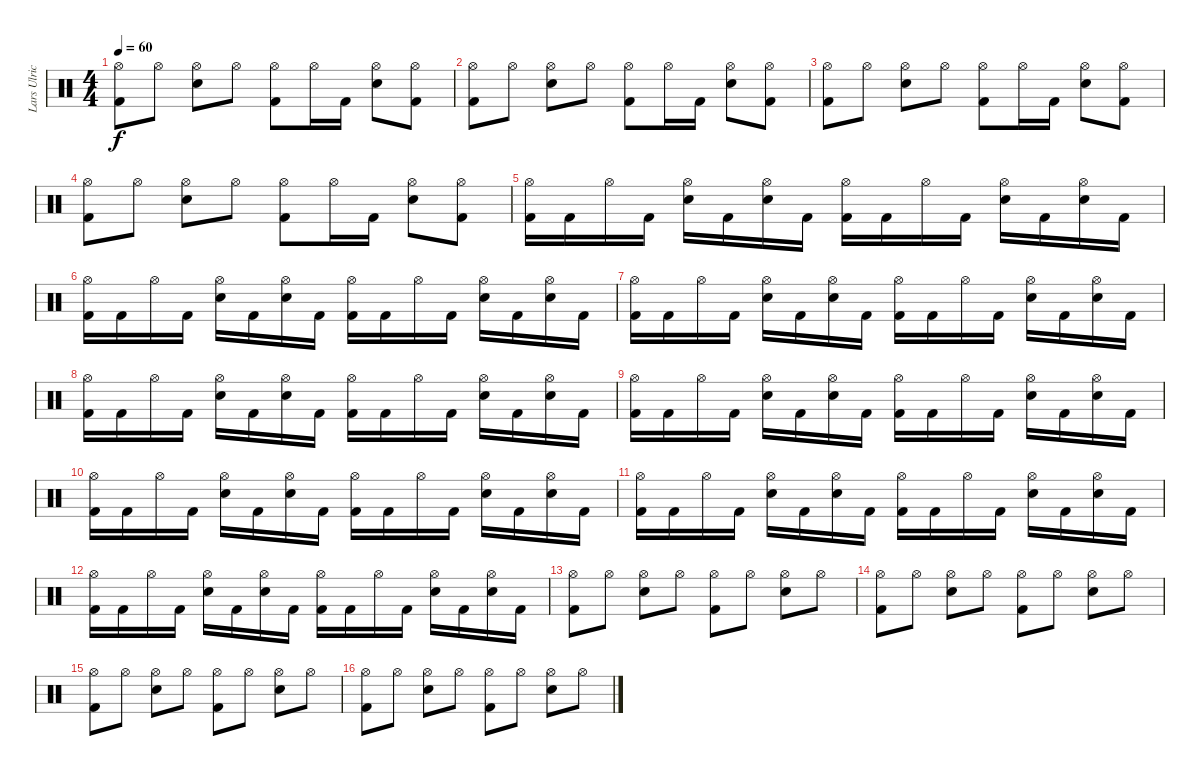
\track ("Lars Ulrich" "Lars Ulric") {instrument percussion}
\staff {score}
\articulation defaults
\ts (4 4)
\tempo 60
\clef neutral
\ks c
("Kick (hit) 2" "Hi-Hat (open)").8{dy f} "Hi-Hat (open)".8 ("Snare (hit) 2" "Hi-Hat (open)").8 "Hi-Hat (open)".8 ("Kick (hit) 2" "Hi-Hat (open)").8 "Hi-Hat (open)".16 "Kick (hit) 2".16 ("Snare (hit) 2" "Hi-Hat (open)").8 ("Kick (hit) 2" "Hi-Hat (open)").8 |
("Kick (hit) 2" "Hi-Hat (open)").8 "Hi-Hat (open)".8 ("Snare (hit) 2" "Hi-Hat (open)").8 "Hi-Hat (open)".8 ("Kick (hit) 2" "Hi-Hat (open)").8 "Hi-Hat (open)".16 "Kick (hit) 2".16 ("Snare (hit) 2" "Hi-Hat (open)").8 ("Kick (hit) 2" "Hi-Hat (open)").8 |
("Kick (hit) 2" "Hi-Hat (open)").8 "Hi-Hat (open)".8 ("Snare (hit) 2" "Hi-Hat (open)").8 "Hi-Hat (open)".8 ("Kick (hit) 2" "Hi-Hat (open)").8 "Hi-Hat (open)".16 "Kick (hit) 2".16 ("Snare (hit) 2" "Hi-Hat (open)").8 ("Kick (hit) 2" "Hi-Hat (open)").8 |
("Kick (hit) 2" "Hi-Hat (open)").8 "Hi-Hat (open)".8 ("Snare (hit) 2" "Hi-Hat (open)").8 "Hi-Hat (open)".8 ("Kick (hit) 2" "Hi-Hat (open)").8 "Hi-Hat (open)".16 "Kick (hit) 2".16 ("Snare (hit) 2" "Hi-Hat (open)").8 ("Kick (hit) 2" "Hi-Hat (open)").8 |
("Kick (hit) 2" "Hi-Hat (open)").16 "Kick (hit) 2".16 "Hi-Hat (open)".16 "Kick (hit) 2".16 ("Snare (hit) 2" "Hi-Hat (open)").16 "Kick (hit) 2".16 ("Snare (hit) 2" "Hi-Hat (open)").16 "Kick (hit) 2".16 ("Kick (hit) 2" "Hi-Hat (open)").16 "Kick (hit) 2".16 "Hi-Hat (open)".16 "Kick (hit) 2".16 ("Snare (hit) 2" "Hi-Hat (open)").16 "Kick (hit) 2".16 ("Snare (hit) 2" "Hi-Hat (open)").16 "Kick (hit) 2".16 |
("Kick (hit) 2" "Hi-Hat (open)").16 "Kick (hit) 2".16 "Hi-Hat (open)".16 "Kick (hit) 2".16 ("Snare (hit) 2" "Hi-Hat (open)").16 "Kick (hit) 2".16 ("Snare (hit) 2" "Hi-Hat (open)").16 "Kick (hit) 2".16 ("Kick (hit) 2" "Hi-Hat (open)").16 "Kick (hit) 2".16 "Hi-Hat (open)".16 "Kick (hit) 2".16 ("Snare (hit) 2" "Hi-Hat (open)").16 "Kick (hit) 2".16 ("Snare (hit) 2" "Hi-Hat (open)").16 "Kick (hit) 2".16 |
("Kick (hit) 2" "Hi-Hat (open)").16 "Kick (hit) 2".16 "Hi-Hat (open)".16 "Kick (hit) 2".16 ("Snare (hit) 2" "Hi-Hat (open)").16 "Kick (hit) 2".16 ("Snare (hit) 2" "Hi-Hat (open)").16 "Kick (hit) 2".16 ("Kick (hit) 2" "Hi-Hat (open)").16 "Kick (hit) 2".16 "Hi-Hat (open)".16 "Kick (hit) 2".16 ("Snare (hit) 2" "Hi-Hat (open)").16 "Kick (hit) 2".16 ("Snare (hit) 2" "Hi-Hat (open)").16 "Kick (hit) 2".16 |
("Kick (hit) 2" "Hi-Hat (open)").16 "Kick (hit) 2".16 "Hi-Hat (open)".16 "Kick (hit) 2".16 ("Snare (hit) 2" "Hi-Hat (open)").16 "Kick (hit) 2".16 ("Snare (hit) 2" "Hi-Hat (open)").16 "Kick (hit) 2".16 ("Kick (hit) 2" "Hi-Hat (open)").16 "Kick (hit) 2".16 "Hi-Hat (open)".16 "Kick (hit) 2".16 ("Snare (hit) 2" "Hi-Hat (open)").16 "Kick (hit) 2".16 ("Snare (hit) 2" "Hi-Hat (open)").16 "Kick (hit) 2".16 |
("Kick (hit) 2" "Hi-Hat (open)").16 "Kick (hit) 2".16 "Hi-Hat (open)".16 "Kick (hit) 2".16 ("Snare (hit) 2" "Hi-Hat (open)").16 "Kick (hit) 2".16 ("Snare (hit) 2" "Hi-Hat (open)").16 "Kick (hit) 2".16 ("Kick (hit) 2" "Hi-Hat (open)").16 "Kick (hit) 2".16 "Hi-Hat (open)".16 "Kick (hit) 2".16 ("Snare (hit) 2" "Hi-Hat (open)").16 "Kick (hit) 2".16 ("Snare (hit) 2" "Hi-Hat (open)").16 "Kick (hit) 2".16 |
("Kick (hit) 2" "Hi-Hat (open)").16 "Kick (hit) 2".16 "Hi-Hat (open)".16 "Kick (hit) 2".16 ("Snare (hit) 2" "Hi-Hat (open)").16 "Kick (hit) 2".16 ("Snare (hit) 2" "Hi-Hat (open)").16 "Kick (hit) 2".16 ("Kick (hit) 2" "Hi-Hat (open)").16 "Kick (hit) 2".16 "Hi-Hat (open)".16 "Kick (hit) 2".16 ("Snare (hit) 2" "Hi-Hat (open)").16 "Kick (hit) 2".16 ("Snare (hit) 2" "Hi-Hat (open)").16 "Kick (hit) 2".16 |
("Kick (hit) 2" "Hi-Hat (open)").16 "Kick (hit) 2".16 "Hi-Hat (open)".16 "Kick (hit) 2".16 ("Snare (hit) 2" "Hi-Hat (open)").16 "Kick (hit) 2".16 ("Snare (hit) 2" "Hi-Hat (open)").16 "Kick (hit) 2".16 ("Kick (hit) 2" "Hi-Hat (open)").16 "Kick (hit) 2".16 "Hi-Hat (open)".16 "Kick (hit) 2".16 ("Snare (hit) 2" "Hi-Hat (open)").16 "Kick (hit) 2".16 ("Snare (hit) 2" "Hi-Hat (open)").16 "Kick (hit) 2".16 |
("Kick (hit) 2" "Hi-Hat (open)").16 "Kick (hit) 2".16 "Hi-Hat (open)".16 "Kick (hit) 2".16 ("Snare (hit) 2" "Hi-Hat (open)").16 "Kick (hit) 2".16 ("Snare (hit) 2" "Hi-Hat (open)").16 "Kick (hit) 2".16 ("Kick (hit) 2" "Hi-Hat (open)").16 "Kick (hit) 2".16 "Hi-Hat (open)".16 "Kick (hit) 2".16 ("Snare (hit) 2" "Hi-Hat (open)").16 "Kick (hit) 2".16 ("Snare (hit) 2" "Hi-Hat (open)").16 "Kick (hit) 2".16 |
("Kick (hit) 2" "Hi-Hat (open)").8 "Hi-Hat (open)".8 ("Snare (hit) 2" "Hi-Hat (open)").8 "Hi-Hat (open)".8 ("Kick (hit) 2" "Hi-Hat (open)").8 "Hi-Hat (open)".8 ("Snare (hit) 2" "Hi-Hat (open)").8 "Hi-Hat (open)".8 |
("Kick (hit) 2" "Hi-Hat (open)").8 "Hi-Hat (open)".8 ("Snare (hit) 2" "Hi-Hat (open)").8 "Hi-Hat (open)".8 ("Kick (hit) 2" "Hi-Hat (open)").8 "Hi-Hat (open)".8 ("Snare (hit) 2" "Hi-Hat (open)").8 "Hi-Hat (open)".8 |
("Kick (hit) 2" "Hi-Hat (open)").8 "Hi-Hat (open)".8 ("Snare (hit) 2" "Hi-Hat (open)").8 "Hi-Hat (open)".8 ("Kick (hit) 2" "Hi-Hat (open)").8 "Hi-Hat (open)".8 ("Snare (hit) 2" "Hi-Hat (open)").8 "Hi-Hat (open)".8 |
("Kick (hit) 2" "Hi-Hat (open)").8 "Hi-Hat (open)".8 ("Snare (hit) 2" "Hi-Hat (open)").8 "Hi-Hat (open)".8 ("Kick (hit) 2" "Hi-Hat (open)").8 "Hi-Hat (open)".8 ("Snare (hit) 2" "Hi-Hat (open)").8 "Hi-Hat (open)".8
